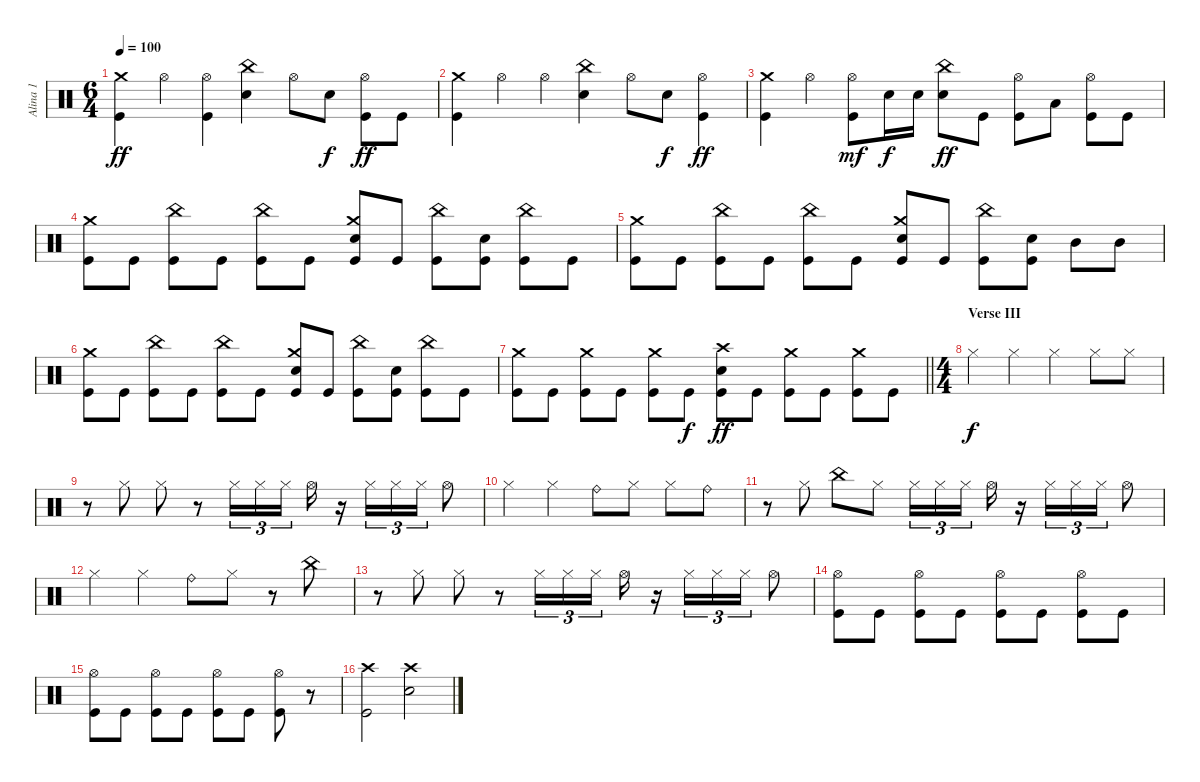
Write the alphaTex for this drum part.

\track ("Alina 1" "Alina 1") {mute instrument percussion}
\staff {score}
\articulation defaults
\ts (6 4)
\tempo 100
\clef neutral
\ks c
("Kick (hit)" "Crash medium (hit)").4{dy ff} "Hi-Hat (open)".4 ("Hi-Hat (open)" "Kick (hit)").4 ("Snare (hit) 2" "China (hit)").4 "Hi-Hat (open)".8 "Snare (hit) 2".8{dy f} ("Hi-Hat (open)" "Kick (hit)").8{dy ff} "Kick (hit)".8 |
("Kick (hit)" "Crash medium (hit)").4 "Hi-Hat (open)".4 "Hi-Hat (open)".4 ("Snare (hit) 2" "China (hit)").4 "Hi-Hat (open)".8 "Snare (hit) 2".8{dy f} ("Hi-Hat (open)" "Kick (hit)").4{dy ff} |
("Kick (hit)" "Crash medium (hit)").4 "Hi-Hat (open)".4 ("Hi-Hat (open)" "Kick (hit)").8{dy mf} "Snare (hit) 2".16{dy f} "Snare (hit) 2".16 ("Snare (hit) 2" "China (hit)").8{dy ff} "Kick (hit)".8 ("Hi-Hat (open)" "Kick (hit)").8 "Low Floor Tom (hit)".8 ("Kick (hit)" "Hi-Hat (open)").8 "Kick (hit)".8 |
("Kick (hit)" "Crash medium (hit)").8 "Kick (hit)".8 ("Kick (hit)" "China (hit)").8 "Kick (hit)".8 ("Kick (hit)" "China (hit)").8 "Kick (hit)".8 ("Kick (hit)" "Snare (hit) 2" "Crash medium (hit)").8 "Kick (hit)".8 ("Kick (hit)" "China (hit)").8 ("Kick (hit)" "Snare (hit) 2").8 ("Kick (hit)" "China (hit)").8 "Kick (hit)".8 |
("Kick (hit)" "Crash medium (hit)").8 "Kick (hit)".8 ("Kick (hit)" "China (hit)").8 "Kick (hit)".8 ("Kick (hit)" "China (hit)").8 "Kick (hit)".8 ("Kick (hit)" "Snare (hit) 2" "Crash medium (hit)").8 "Kick (hit)".8 ("Kick (hit)" "China (hit)").8 ("Kick (hit)" "Snare (hit) 2").8 "Mid Tom (hit)".8 "Mid Tom (hit)".8 |
("Kick (hit)" "Crash medium (hit)").8 "Kick (hit)".8 ("Kick (hit)" "China (hit)").8 "Kick (hit)".8 ("Kick (hit)" "China (hit)").8 "Kick (hit)".8 ("Kick (hit)" "Snare (hit) 2" "Crash medium (hit)").8 "Kick (hit)".8 ("Kick (hit)" "China (hit)").8 ("Kick (hit)" "Snare (hit) 2").8 ("Kick (hit)" "China (hit)").8 "Kick (hit)".8 |
\barLineRight lightlight
("Kick (hit)" "Crash medium (hit)").8 "Kick (hit)".8 ("Kick (hit)" "Crash medium (hit)").8 "Kick (hit)".8 ("Kick (hit)" "Crash medium (hit)").8 "Kick (hit)".8{dy f} ("Kick (hit)" "Snare (hit) 2" "Crash high (hit)").8{dy ff} "Kick (hit)".8 ("Kick (hit)" "Crash medium (hit)").8 "Kick (hit)".8 ("Kick (hit)" "Crash medium (hit)").8 "Kick (hit)".8 |
\ts (4 4)
\section ("" "Verse III")
"Hi-Hat (closed)".4{dy f} "Hi-Hat (closed)".4 "Hi-Hat (closed)".4 "Hi-Hat (closed)".8 "Hi-Hat (closed)".8 |
r.8 "Hi-Hat (closed)".8 "Hi-Hat (closed)".8 r.8 "Hi-Hat (closed)".16{tu (3 2)} "Hi-Hat (closed)".16{tu (3 2)} "Hi-Hat (closed)".16{tu (3 2)} "Hi-Hat (open)".16 r.16 "Hi-Hat (closed)".16{tu (3 2)} "Hi-Hat (closed)".16{tu (3 2)} "Hi-Hat (closed)".16{tu (3 2)} "Hi-Hat (open)".8 |
"Hi-Hat (closed)".4 "Hi-Hat (closed)".4 "Ride (bell)".8 "Hi-Hat (closed)".8 "Hi-Hat (closed)".8 "Ride (bell)".8 |
r.8 "Hi-Hat (closed)".8 "China (hit)".8 "Hi-Hat (closed)".8 "Hi-Hat (closed)".16{tu (3 2)} "Hi-Hat (closed)".16{tu (3 2)} "Hi-Hat (closed)".16{tu (3 2)} "Hi-Hat (open)".16 r.16 "Hi-Hat (closed)".16{tu (3 2)} "Hi-Hat (closed)".16{tu (3 2)} "Hi-Hat (closed)".16{tu (3 2)} "Hi-Hat (open)".8 |
"Hi-Hat (closed)".4 "Hi-Hat (closed)".4 "Ride (bell)".8 "Hi-Hat (closed)".8 r.8 "China (hit)".8 |
r.8 "Hi-Hat (closed)".8 "Hi-Hat (closed)".8 r.8 "Hi-Hat (closed)".16{tu (3 2)} "Hi-Hat (closed)".16{tu (3 2)} "Hi-Hat (closed)".16{tu (3 2)} "Hi-Hat (open)".16 r.16 "Hi-Hat (closed)".16{tu (3 2)} "Hi-Hat (closed)".16{tu (3 2)} "Hi-Hat (closed)".16{tu (3 2)} "Hi-Hat (open)".8 |
("Hi-Hat (open)" "Kick (hit)").8 "Kick (hit)".8 ("Hi-Hat (open)" "Kick (hit)").8 "Kick (hit)".8 ("Hi-Hat (open)" "Kick (hit)").8 "Kick (hit)".8 ("Hi-Hat (open)" "Kick (hit)").8 "Kick (hit)".8 |
("Hi-Hat (open)" "Kick (hit)").8 "Kick (hit)".8 ("Hi-Hat (open)" "Kick (hit)").8 "Kick (hit)".8 ("Hi-Hat (open)" "Kick (hit)").8 "Kick (hit)".8 ("Hi-Hat (open)" "Kick (hit)").8 r.8 |
("Kick (hit)" "Crash high (hit)").2 ("Snare (hit) 2" "Crash high (hit)").2
